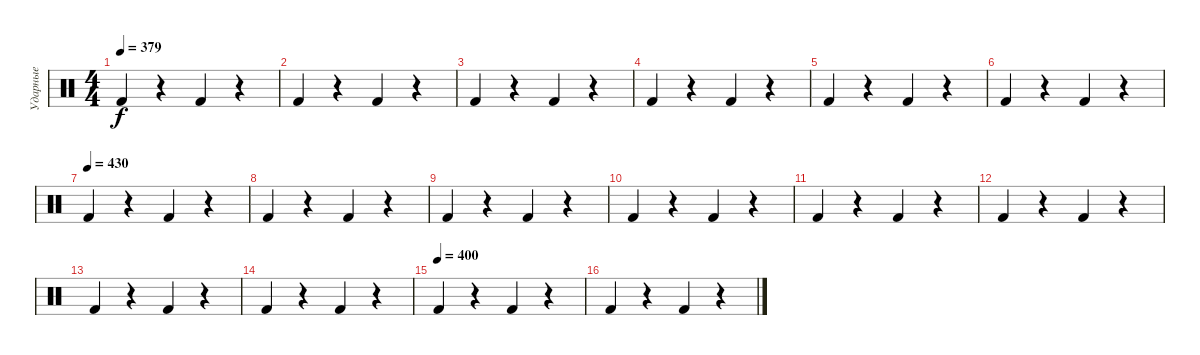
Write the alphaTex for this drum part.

\track ("Ударные" "Ударные") {instrument percussion}
\staff {score}
\articulation defaults
\ts (4 4)
\tempo 379
\clef neutral
\ks c "Kick (hit) 2".4{dy f}
r.4 "Kick (hit) 2".4 r.4 |
"Kick (hit) 2".4 r.4 "Kick (hit) 2".4 r.4 |
"Kick (hit) 2".4 r.4 "Kick (hit) 2".4 r.4 |
"Kick (hit) 2".4 r.4 "Kick (hit) 2".4 r.4 |
"Kick (hit) 2".4 r.4 "Kick (hit) 2".4 r.4 |
"Kick (hit) 2".4 r.4 "Kick (hit) 2".4 r.4 |
\tempo (430)
"Kick (hit) 2".4 r.4 "Kick (hit) 2".4 r.4 |
"Kick (hit) 2".4 r.4 "Kick (hit) 2".4 r.4 |
"Kick (hit) 2".4 r.4 "Kick (hit) 2".4 r.4 |
"Kick (hit) 2".4 r.4 "Kick (hit) 2".4 r.4 |
"Kick (hit) 2".4 r.4 "Kick (hit) 2".4 r.4 |
"Kick (hit) 2".4 r.4 "Kick (hit) 2".4 r.4 |
"Kick (hit) 2".4 r.4 "Kick (hit) 2".4 r.4 |
"Kick (hit) 2".4 r.4 "Kick (hit) 2".4 r.4 |
\tempo (400)
"Kick (hit) 2".4 r.4 "Kick (hit) 2".4 r.4 |
"Kick (hit) 2".4 r.4 "Kick (hit) 2".4 r.4
